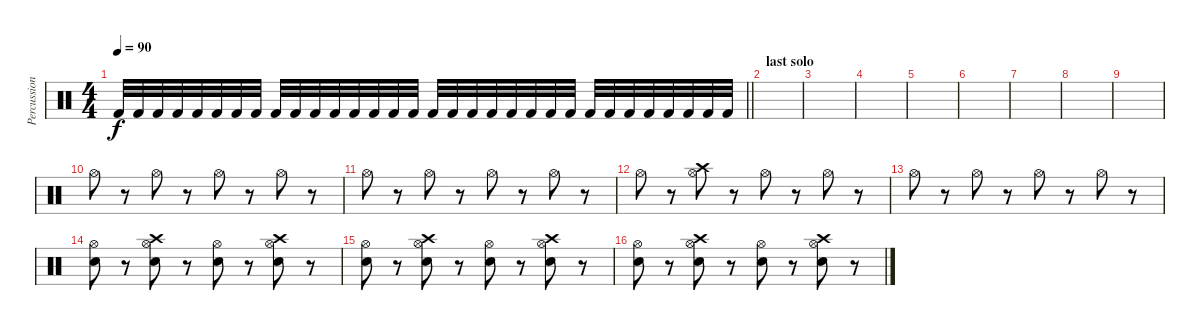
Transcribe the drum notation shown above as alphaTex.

\track ("Percussion" "Percussion") {instrument percussion}
\staff {score}
\articulation defaults
\ts (4 4)
\tempo 90
\clef neutral
\barLineRight lightlight
\ks c "Kick (hit) 2".32{dy f} "Kick (hit) 2".32 "Kick (hit) 2".32 "Kick (hit) 2".32 "Kick (hit) 2".32 "Kick (hit) 2".32 "Kick (hit) 2".32 "Kick (hit) 2".32 "Kick (hit) 2".32 "Kick (hit) 2".32 "Kick (hit) 2".32 "Kick (hit) 2".32 "Kick (hit) 2".32 "Kick (hit) 2".32 "Kick (hit) 2".32 "Kick (hit) 2".32 "Kick (hit) 2".32 "Kick (hit) 2".32 "Kick (hit) 2".32 "Kick (hit) 2".32 "Kick (hit) 2".32 "Kick (hit) 2".32 "Kick (hit) 2".32 "Kick (hit) 2".32 "Kick (hit) 2".32 "Kick (hit) 2".32 "Kick (hit) 2".32 "Kick (hit) 2".32 "Kick (hit) 2".32 "Kick (hit) 2".32 "Kick (hit) 2".32 "Kick (hit) 2".32
|
\section ("" "last solo")
|
|
|
|
|
|
|
|
"Hi-Hat (open)".8 r.8 "Hi-Hat (open)".8 r.8 "Hi-Hat (open)".8 r.8 "Hi-Hat (open)".8 r.8 |
"Hi-Hat (open)".8 r.8 "Hi-Hat (open)".8 r.8 "Hi-Hat (open)".8 r.8 "Hi-Hat (open)".8 r.8 |
"Hi-Hat (open)".8 r.8 ("Crash high (hit)" "Hi-Hat (open)").8 r.8 "Hi-Hat (open)".8 r.8 "Hi-Hat (open)".8 r.8 |
"Hi-Hat (open)".8 r.8 "Hi-Hat (open)".8 r.8 "Hi-Hat (open)".8 r.8 "Hi-Hat (open)".8 r.8 |
("Electric Snare (hit)" "Hi-Hat (open)").8 r.8 ("Crash high (hit)" "Electric Snare (hit)" "Hi-Hat (open)").8 r.8 ("Electric Snare (hit)" "Hi-Hat (open)").8 r.8 ("Crash high (hit)" "Electric Snare (hit)" "Hi-Hat (open)").8 r.8 |
("Electric Snare (hit)" "Hi-Hat (open)").8 r.8 ("Crash high (hit)" "Electric Snare (hit)" "Hi-Hat (open)").8 r.8 ("Electric Snare (hit)" "Hi-Hat (open)").8 r.8 ("Crash high (hit)" "Electric Snare (hit)" "Hi-Hat (open)").8 r.8 |
("Electric Snare (hit)" "Hi-Hat (open)").8 r.8 ("Crash high (hit)" "Electric Snare (hit)" "Hi-Hat (open)").8 r.8 ("Electric Snare (hit)" "Hi-Hat (open)").8 r.8 ("Crash high (hit)" "Electric Snare (hit)" "Hi-Hat (open)").8 r.8
